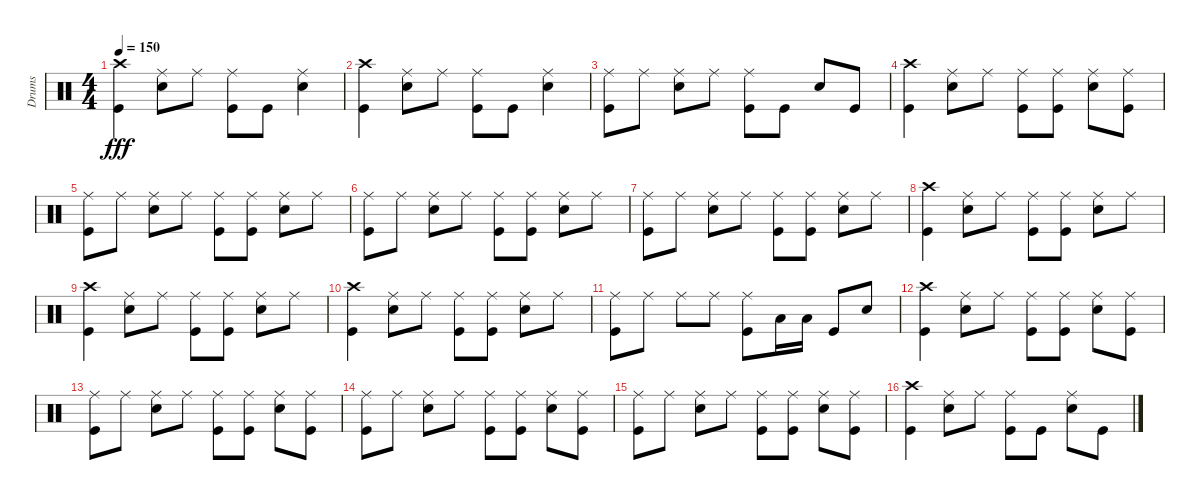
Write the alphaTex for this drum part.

\track ("Drums" "Drums") {instrument percussion}
\staff {score}
\articulation defaults
\ts (4 4)
\tempo 150
\clef neutral
\ks c
("Crash high (hit)" "Kick (hit)").4{dy fff} ("Ride (middle)" "Snare (hit) 2").8 "Ride (middle)".8 ("Ride (middle)" "Kick (hit)").8 "Kick (hit)".8 ("Ride (middle)" "Snare (hit) 2").4 |
("Crash high (hit)" "Kick (hit)").4 ("Ride (middle)" "Snare (hit) 2").8 "Ride (middle)".8 ("Ride (middle)" "Kick (hit)").8 "Kick (hit)".8 ("Ride (middle)" "Snare (hit) 2").4 |
("Ride (middle)" "Kick (hit)").8 "Ride (middle)".8 ("Ride (middle)" "Snare (hit) 2").8 "Ride (middle)".8 ("Ride (middle)" "Kick (hit)").8 "Kick (hit)".8 "Snare (hit) 2".8 "Kick (hit)".8 |
("Crash high (hit)" "Kick (hit)").4 ("Ride (middle)" "Snare (hit) 2").8 "Ride (middle)".8 ("Ride (middle)" "Kick (hit)").8 ("Ride (middle)" "Kick (hit)").8 ("Ride (middle)" "Snare (hit) 2").8 ("Ride (middle)" "Kick (hit)").8 |
("Ride (middle)" "Kick (hit)").8 "Ride (middle)".8 ("Ride (middle)" "Snare (hit) 2").8 "Ride (middle)".8 ("Ride (middle)" "Kick (hit)").8 ("Ride (middle)" "Kick (hit)").8 ("Ride (middle)" "Snare (hit) 2").8 "Ride (middle)".8 |
("Ride (middle)" "Kick (hit)").8 "Ride (middle)".8 ("Ride (middle)" "Snare (hit) 2").8 "Ride (middle)".8 ("Ride (middle)" "Kick (hit)").8 ("Ride (middle)" "Kick (hit)").8 ("Ride (middle)" "Snare (hit) 2").8 "Ride (middle)".8 |
("Ride (middle)" "Kick (hit)").8 "Ride (middle)".8 ("Ride (middle)" "Snare (hit) 2").8 "Ride (middle)".8 ("Ride (middle)" "Kick (hit)").8 ("Ride (middle)" "Kick (hit)").8 ("Ride (middle)" "Snare (hit) 2").8 "Ride (middle)".8 |
("Crash high (hit)" "Kick (hit)").4 ("Ride (middle)" "Snare (hit) 2").8 "Ride (middle)".8 ("Ride (middle)" "Kick (hit)").8 ("Ride (middle)" "Kick (hit)").8 ("Ride (middle)" "Snare (hit) 2").8 "Ride (middle)".8 |
("Crash high (hit)" "Kick (hit)").4 ("Ride (middle)" "Snare (hit) 2").8 "Ride (middle)".8 ("Ride (middle)" "Kick (hit)").8 ("Ride (middle)" "Kick (hit)").8 ("Ride (middle)" "Snare (hit) 2").8 "Ride (middle)".8 |
("Crash high (hit)" "Kick (hit)").4 ("Ride (middle)" "Snare (hit) 2").8 "Ride (middle)".8 ("Ride (middle)" "Kick (hit)").8 ("Ride (middle)" "Kick (hit)").8 ("Ride (middle)" "Snare (hit) 2").8 "Ride (middle)".8 |
("Ride (middle)" "Kick (hit)").8 "Ride (middle)".8 "Ride (middle)".8 "Ride (middle)".8 ("Ride (middle)" "Kick (hit)").8 "Low Tom (hit)".16 "Low Tom (hit)".16 "Kick (hit)".8 "Snare (hit) 2".8 |
("Crash high (hit)" "Kick (hit)").4 ("Ride (middle)" "Snare (hit) 2").8 "Ride (middle)".8 ("Ride (middle)" "Kick (hit)").8 ("Ride (middle)" "Kick (hit)").8 ("Ride (middle)" "Snare (hit) 2").8 ("Ride (middle)" "Kick (hit)").8 |
("Ride (middle)" "Kick (hit)").8 "Ride (middle)".8 ("Ride (middle)" "Snare (hit) 2").8 "Ride (middle)".8 ("Ride (middle)" "Kick (hit)").8 ("Ride (middle)" "Kick (hit)").8 ("Ride (middle)" "Snare (hit) 2").8 ("Ride (middle)" "Kick (hit)").8 |
("Ride (middle)" "Kick (hit)").8 "Ride (middle)".8 ("Ride (middle)" "Snare (hit) 2").8 "Ride (middle)".8 ("Ride (middle)" "Kick (hit)").8 ("Ride (middle)" "Kick (hit)").8 ("Ride (middle)" "Snare (hit) 2").8 ("Ride (middle)" "Kick (hit)").8 |
("Ride (middle)" "Kick (hit)").8 "Ride (middle)".8 ("Ride (middle)" "Snare (hit) 2").8 "Ride (middle)".8 ("Ride (middle)" "Kick (hit)").8 ("Ride (middle)" "Kick (hit)").8 ("Ride (middle)" "Snare (hit) 2").8 ("Ride (middle)" "Kick (hit)").8 |
("Crash high (hit)" "Kick (hit)").4 ("Ride (middle)" "Snare (hit) 2").8 "Ride (middle)".8 ("Ride (middle)" "Kick (hit)").8 "Kick (hit)".8 ("Ride (middle)" "Snare (hit) 2").8 "Kick (hit)".8
